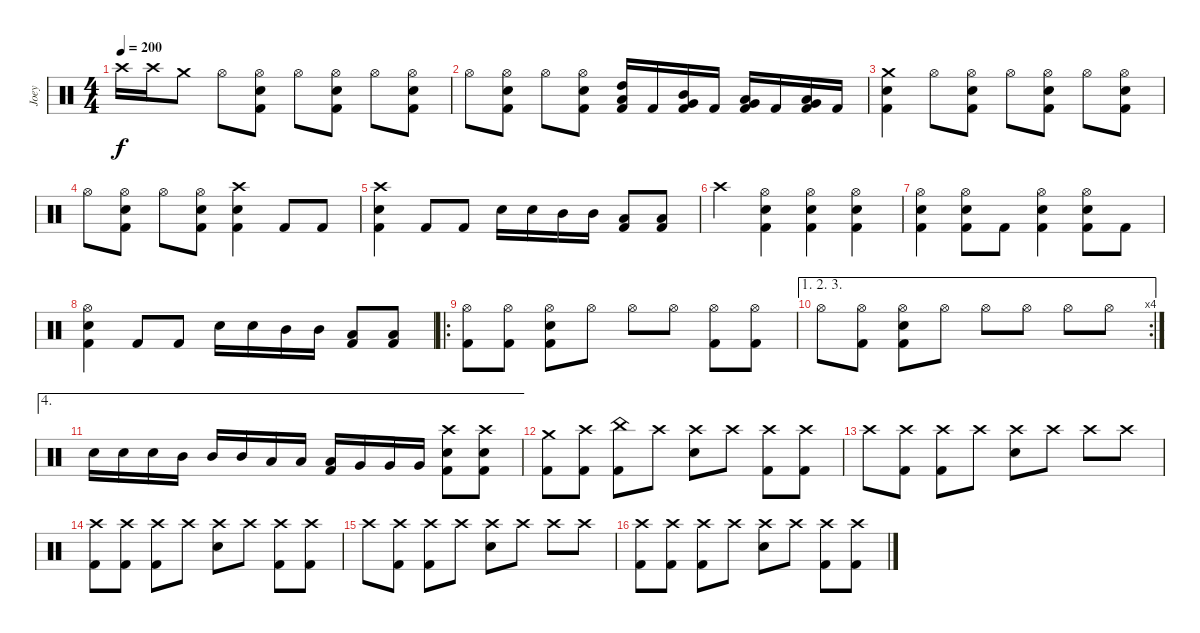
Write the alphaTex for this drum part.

\track ("Joey" "Joey") {instrument percussion}
\staff {score}
\articulation defaults
\ts (4 4)
\tempo 200
\clef neutral
\ks c "Crash high (hit)".16{dy f} "Crash high (hit)".16 "Crash medium (hit)".8 "Hi-Hat (open)".8
("Hi-Hat (open)" "Electric Snare (hit)" "Kick (hit) 2").8 "Hi-Hat (open)".8 ("Hi-Hat (open)" "Electric Snare (hit)" "Kick (hit) 2").8 "Hi-Hat (open)".8 ("Hi-Hat (open)" "Electric Snare (hit)" "Kick (hit) 2").8 |
"Hi-Hat (open)".8 ("Hi-Hat (open)" "Electric Snare (hit)" "Kick (hit) 2").8 "Hi-Hat (open)".8 ("Hi-Hat (open)" "Electric Snare (hit)" "Kick (hit) 2").8 ("Low Tom (hit)" "High Tom (hit)" "Kick (hit) 2").16 "Kick (hit) 2".16 ("Very Low Tom (hit)" "Mid Tom (hit)" "Kick (hit) 2").16 "Kick (hit) 2".16 ("Low Floor Tom (hit)" "Very Low Tom (hit)" "Kick (hit) 2").16 "Kick (hit) 2".16 ("Low Floor Tom (hit)" "Very Low Tom (hit)" "Kick (hit) 2").16 "Kick (hit) 2".16 |
("Crash medium (hit)" "Electric Snare (hit)" "Kick (hit) 2").4 "Hi-Hat (open)".8 ("Hi-Hat (open)" "Electric Snare (hit)" "Kick (hit) 2").8 "Hi-Hat (open)".8 ("Hi-Hat (open)" "Electric Snare (hit)" "Kick (hit) 2").8 "Hi-Hat (open)".8 ("Hi-Hat (open)" "Electric Snare (hit)" "Kick (hit) 2").8 |
"Hi-Hat (open)".8 ("Hi-Hat (open)" "Electric Snare (hit)" "Kick (hit) 2").8 "Hi-Hat (open)".8 ("Hi-Hat (open)" "Electric Snare (hit)" "Kick (hit) 2").8 ("Crash high (hit)" "Electric Snare (hit)" "Kick (hit) 2").4 "Kick (hit) 2".8 "Kick (hit) 2".8 |
("Crash high (hit)" "Electric Snare (hit)" "Kick (hit) 2").4 "Kick (hit) 2".8 "Kick (hit) 2".8 "Electric Snare (hit)".16 "Electric Snare (hit)".16 "Mid Tom (hit)".16 "Mid Tom (hit)".16 ("Low Tom (hit)" "Kick (hit) 2").8 ("Low Tom (hit)" "Kick (hit) 2").8 |
"Crash high (hit)".4 ("Hi-Hat (open)" "Electric Snare (hit)" "Kick (hit) 2").4 ("Hi-Hat (open)" "Electric Snare (hit)" "Kick (hit) 2").4 ("Hi-Hat (open)" "Electric Snare (hit)" "Kick (hit) 2").4 |
("Hi-Hat (open)" "Electric Snare (hit)" "Kick (hit) 2").4 ("Hi-Hat (open)" "Electric Snare (hit)" "Kick (hit) 2").8 "Kick (hit) 2".8 ("Hi-Hat (open)" "Electric Snare (hit)" "Kick (hit) 2").4 ("Hi-Hat (open)" "Electric Snare (hit)" "Kick (hit) 2").8 "Kick (hit) 2".8 |
("Hi-Hat (open)" "Electric Snare (hit)" "Kick (hit) 2").4 "Kick (hit) 2".8 "Kick (hit) 2".8 "Electric Snare (hit)".16 "Electric Snare (hit)".16 "Mid Tom (hit)".16 "Mid Tom (hit)".16 ("Low Tom (hit)" "Kick (hit) 2").8 ("Low Tom (hit)" "Kick (hit) 2").8 |
\ro
("Hi-Hat (open)" "Kick (hit) 2").8 ("Hi-Hat (open)" "Kick (hit) 2").8 ("Hi-Hat (open)" "Electric Snare (hit)" "Kick (hit) 2").8 "Hi-Hat (open)".8 "Hi-Hat (open)".8 "Hi-Hat (open)".8 ("Hi-Hat (open)" "Kick (hit) 2").8 ("Hi-Hat (open)" "Kick (hit) 2").8 |
\ae (1 2 3)
\rc 4 "Hi-Hat (open)".8
("Hi-Hat (open)" "Kick (hit) 2").8 ("Hi-Hat (open)" "Electric Snare (hit)" "Kick (hit) 2").8 "Hi-Hat (open)".8 "Hi-Hat (open)".8 "Hi-Hat (open)".8 "Hi-Hat (open)".8 "Hi-Hat (open)".8 |
\ae 4 "Electric Snare (hit)".16 "Electric Snare (hit)".16 "Electric Snare (hit)".16 "Mid Tom (hit)".16 "Mid Tom (hit)".16 "Mid Tom (hit)".16 "Low Tom (hit)".16 "Low Tom (hit)".16
("Low Tom (hit)" "Kick (hit) 2").16 "Very Low Tom (hit)".16 "Very Low Tom (hit)".16 "Very Low Tom (hit)".16 ("Crash high (hit)" "Electric Snare (hit)" "Kick (hit) 2").8 ("Crash high (hit)" "Electric Snare (hit)" "Kick (hit) 2").8 |
("Crash medium (hit)" "Kick (hit) 2").8 ("Crash high (hit)" "Kick (hit) 2").8 ("China (hit)" "Kick (hit) 2").8 "Crash high (hit)".8 ("Crash high (hit)" "Electric Snare (hit)").8 "Crash high (hit)".8 ("Crash high (hit)" "Kick (hit) 2").8 ("Crash high (hit)" "Kick (hit) 2").8 |
"Crash high (hit)".8 ("Crash high (hit)" "Kick (hit) 2").8 ("Crash high (hit)" "Kick (hit) 2").8 "Crash high (hit)".8 ("Crash high (hit)" "Electric Snare (hit)").8 "Crash high (hit)".8 "Crash high (hit)".8 "Crash high (hit)".8 |
("Crash high (hit)" "Kick (hit) 2").8 ("Crash high (hit)" "Kick (hit) 2").8 ("Crash high (hit)" "Kick (hit) 2").8 "Crash high (hit)".8 ("Crash high (hit)" "Electric Snare (hit)").8 "Crash high (hit)".8 ("Crash high (hit)" "Kick (hit) 2").8 ("Crash high (hit)" "Kick (hit) 2").8 |
"Crash high (hit)".8 ("Crash high (hit)" "Kick (hit) 2").8 ("Crash high (hit)" "Kick (hit) 2").8 "Crash high (hit)".8 ("Crash high (hit)" "Electric Snare (hit)").8 "Crash high (hit)".8 "Crash high (hit)".8 "Crash high (hit)".8 |
("Crash high (hit)" "Kick (hit) 2").8 ("Crash high (hit)" "Kick (hit) 2").8 ("Crash high (hit)" "Kick (hit) 2").8 "Crash high (hit)".8 ("Crash high (hit)" "Electric Snare (hit)").8 "Crash high (hit)".8 ("Crash high (hit)" "Kick (hit) 2").8 ("Crash high (hit)" "Kick (hit) 2").8
